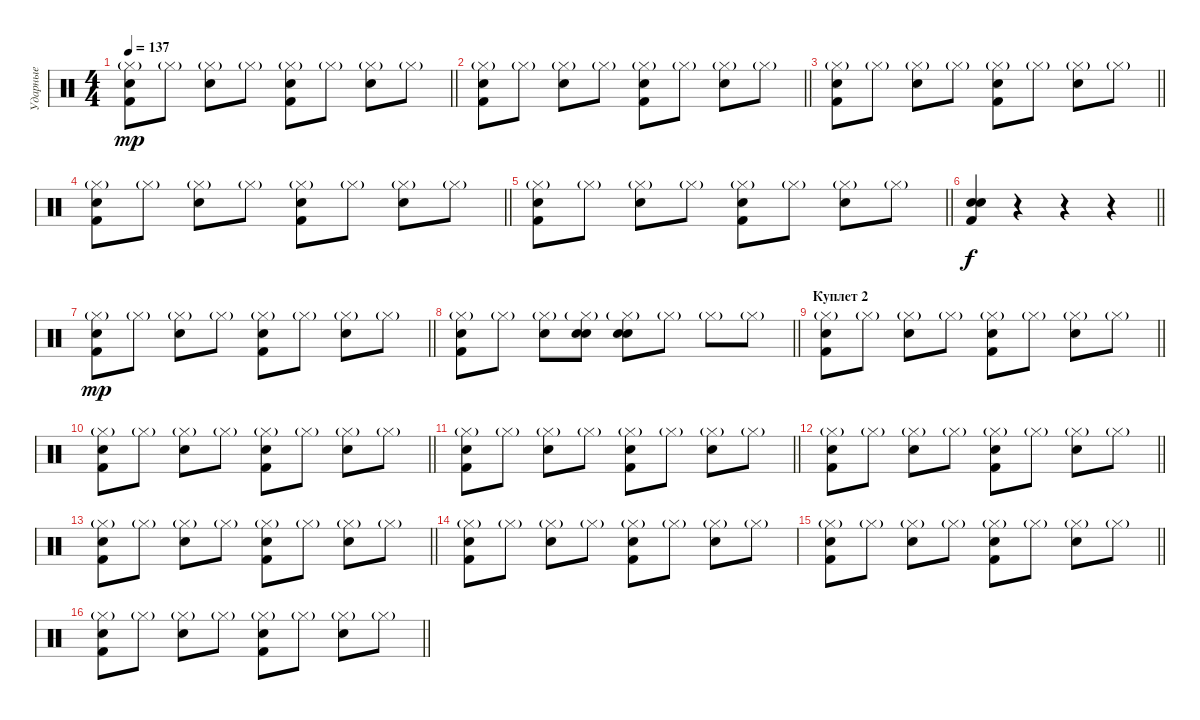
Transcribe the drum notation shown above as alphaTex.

\track ("Ударные" "Ударные") {instrument percussion}
\staff {score}
\articulation defaults
\ts (4 4)
\tempo 137
\clef neutral
\barLineRight lightlight
\ks c
("Kick (hit) 2" "Electric Snare (hit)" "Hi-Hat (closed)"{g}).8{dy mp} "Hi-Hat (closed)"{g}.8 ("Snare (hit) 2" "Hi-Hat (closed)"{g}).8 "Hi-Hat (closed)"{g}.8 ("Kick (hit) 2" "Electric Snare (hit)" "Hi-Hat (closed)"{g}).8 "Hi-Hat (closed)"{g}.8 ("Snare (hit) 2" "Hi-Hat (closed)"{g}).8 "Hi-Hat (closed)"{g}.8 |
\barLineRight lightlight
("Kick (hit) 2" "Electric Snare (hit)" "Hi-Hat (closed)"{g}).8 "Hi-Hat (closed)"{g}.8 ("Snare (hit) 2" "Hi-Hat (closed)"{g}).8 "Hi-Hat (closed)"{g}.8 ("Kick (hit) 2" "Electric Snare (hit)" "Hi-Hat (closed)"{g}).8 "Hi-Hat (closed)"{g}.8 ("Snare (hit) 2" "Hi-Hat (closed)"{g}).8 "Hi-Hat (closed)"{g}.8 |
\barLineRight lightlight
("Kick (hit) 2" "Electric Snare (hit)" "Hi-Hat (closed)"{g}).8 "Hi-Hat (closed)"{g}.8 ("Snare (hit) 2" "Hi-Hat (closed)"{g}).8 "Hi-Hat (closed)"{g}.8 ("Kick (hit) 2" "Electric Snare (hit)" "Hi-Hat (closed)"{g}).8 "Hi-Hat (closed)"{g}.8 ("Snare (hit) 2" "Hi-Hat (closed)"{g}).8 "Hi-Hat (closed)"{g}.8 |
\barLineRight lightlight
("Kick (hit) 2" "Electric Snare (hit)" "Hi-Hat (closed)"{g}).8 "Hi-Hat (closed)"{g}.8 ("Snare (hit) 2" "Hi-Hat (closed)"{g}).8 "Hi-Hat (closed)"{g}.8 ("Kick (hit) 2" "Electric Snare (hit)" "Hi-Hat (closed)"{g}).8 "Hi-Hat (closed)"{g}.8 ("Snare (hit) 2" "Hi-Hat (closed)"{g}).8 "Hi-Hat (closed)"{g}.8 |
\barLineRight lightlight
("Kick (hit) 2" "Electric Snare (hit)" "Hi-Hat (closed)"{g}).8 "Hi-Hat (closed)"{g}.8 ("Snare (hit) 2" "Hi-Hat (closed)"{g}).8 "Hi-Hat (closed)"{g}.8 ("Kick (hit) 2" "Electric Snare (hit)" "Hi-Hat (closed)"{g}).8 "Hi-Hat (closed)"{g}.8 ("Snare (hit) 2" "Hi-Hat (closed)"{g}).8 "Hi-Hat (closed)"{g}.8 |
\barLineRight lightlight
("Snare (hit) 2" "Electric Snare (hit)" "Kick (hit) 2").4{dy f} r.4 r.4 r.4 |
\barLineRight lightlight
("Kick (hit) 2" "Electric Snare (hit)" "Hi-Hat (closed)"{g}).8{dy mp} "Hi-Hat (closed)"{g}.8 ("Snare (hit) 2" "Hi-Hat (closed)"{g}).8 "Hi-Hat (closed)"{g}.8 ("Kick (hit) 2" "Electric Snare (hit)" "Hi-Hat (closed)"{g}).8 "Hi-Hat (closed)"{g}.8 ("Snare (hit) 2" "Hi-Hat (closed)"{g}).8 "Hi-Hat (closed)"{g}.8 |
\barLineRight lightlight
("Kick (hit) 2" "Electric Snare (hit)" "Hi-Hat (closed)"{g}).8 "Hi-Hat (closed)"{g}.8 ("Snare (hit) 2" "Hi-Hat (closed)"{g}).8 ("Snare (hit) 2" "Electric Snare (hit)" "Hi-Hat (closed)"{g}).8 ("Snare (hit) 2" "Electric Snare (hit)" "Hi-Hat (closed)"{g}).8 "Hi-Hat (closed)"{g}.8 "Hi-Hat (closed)"{g}.8 "Hi-Hat (closed)"{g}.8 |
\section ("" "Куплет 2")
\barLineRight lightlight
("Kick (hit) 2" "Electric Snare (hit)" "Hi-Hat (closed)"{g}).8 "Hi-Hat (closed)"{g}.8 ("Snare (hit) 2" "Hi-Hat (closed)"{g}).8 "Hi-Hat (closed)"{g}.8 ("Kick (hit) 2" "Electric Snare (hit)" "Hi-Hat (closed)"{g}).8 "Hi-Hat (closed)"{g}.8 ("Snare (hit) 2" "Hi-Hat (closed)"{g}).8 "Hi-Hat (closed)"{g}.8 |
\barLineRight lightlight
("Kick (hit) 2" "Electric Snare (hit)" "Hi-Hat (closed)"{g}).8 "Hi-Hat (closed)"{g}.8 ("Snare (hit) 2" "Hi-Hat (closed)"{g}).8 "Hi-Hat (closed)"{g}.8 ("Kick (hit) 2" "Electric Snare (hit)" "Hi-Hat (closed)"{g}).8 "Hi-Hat (closed)"{g}.8 ("Snare (hit) 2" "Hi-Hat (closed)"{g}).8 "Hi-Hat (closed)"{g}.8 |
\barLineRight lightlight
("Kick (hit) 2" "Electric Snare (hit)" "Hi-Hat (closed)"{g}).8 "Hi-Hat (closed)"{g}.8 ("Snare (hit) 2" "Hi-Hat (closed)"{g}).8 "Hi-Hat (closed)"{g}.8 ("Kick (hit) 2" "Electric Snare (hit)" "Hi-Hat (closed)"{g}).8 "Hi-Hat (closed)"{g}.8 ("Snare (hit) 2" "Hi-Hat (closed)"{g}).8 "Hi-Hat (closed)"{g}.8 |
\barLineRight lightlight
("Kick (hit) 2" "Electric Snare (hit)" "Hi-Hat (closed)"{g}).8 "Hi-Hat (closed)"{g}.8 ("Snare (hit) 2" "Hi-Hat (closed)"{g}).8 "Hi-Hat (closed)"{g}.8 ("Kick (hit) 2" "Electric Snare (hit)" "Hi-Hat (closed)"{g}).8 "Hi-Hat (closed)"{g}.8 ("Snare (hit) 2" "Hi-Hat (closed)"{g}).8 "Hi-Hat (closed)"{g}.8 |
\barLineRight lightlight
("Kick (hit) 2" "Electric Snare (hit)" "Hi-Hat (closed)"{g}).8 "Hi-Hat (closed)"{g}.8 ("Snare (hit) 2" "Hi-Hat (closed)"{g}).8 "Hi-Hat (closed)"{g}.8 ("Kick (hit) 2" "Electric Snare (hit)" "Hi-Hat (closed)"{g}).8 "Hi-Hat (closed)"{g}.8 ("Snare (hit) 2" "Hi-Hat (closed)"{g}).8 "Hi-Hat (closed)"{g}.8 |
("Kick (hit) 2" "Electric Snare (hit)" "Hi-Hat (closed)"{g}).8 "Hi-Hat (closed)"{g}.8 ("Snare (hit) 2" "Hi-Hat (closed)"{g}).8 "Hi-Hat (closed)"{g}.8 ("Kick (hit) 2" "Electric Snare (hit)" "Hi-Hat (closed)"{g}).8 "Hi-Hat (closed)"{g}.8 ("Snare (hit) 2" "Hi-Hat (closed)"{g}).8 "Hi-Hat (closed)"{g}.8 |
\barLineRight lightlight
("Kick (hit) 2" "Electric Snare (hit)" "Hi-Hat (closed)"{g}).8 "Hi-Hat (closed)"{g}.8 ("Snare (hit) 2" "Hi-Hat (closed)"{g}).8 "Hi-Hat (closed)"{g}.8 ("Kick (hit) 2" "Electric Snare (hit)" "Hi-Hat (closed)"{g}).8 "Hi-Hat (closed)"{g}.8 ("Snare (hit) 2" "Hi-Hat (closed)"{g}).8 "Hi-Hat (closed)"{g}.8 |
\barLineRight lightlight
("Kick (hit) 2" "Electric Snare (hit)" "Hi-Hat (closed)"{g}).8 "Hi-Hat (closed)"{g}.8 ("Snare (hit) 2" "Hi-Hat (closed)"{g}).8 "Hi-Hat (closed)"{g}.8 ("Kick (hit) 2" "Electric Snare (hit)" "Hi-Hat (closed)"{g}).8 "Hi-Hat (closed)"{g}.8 ("Snare (hit) 2" "Hi-Hat (closed)"{g}).8 "Hi-Hat (closed)"{g}.8
